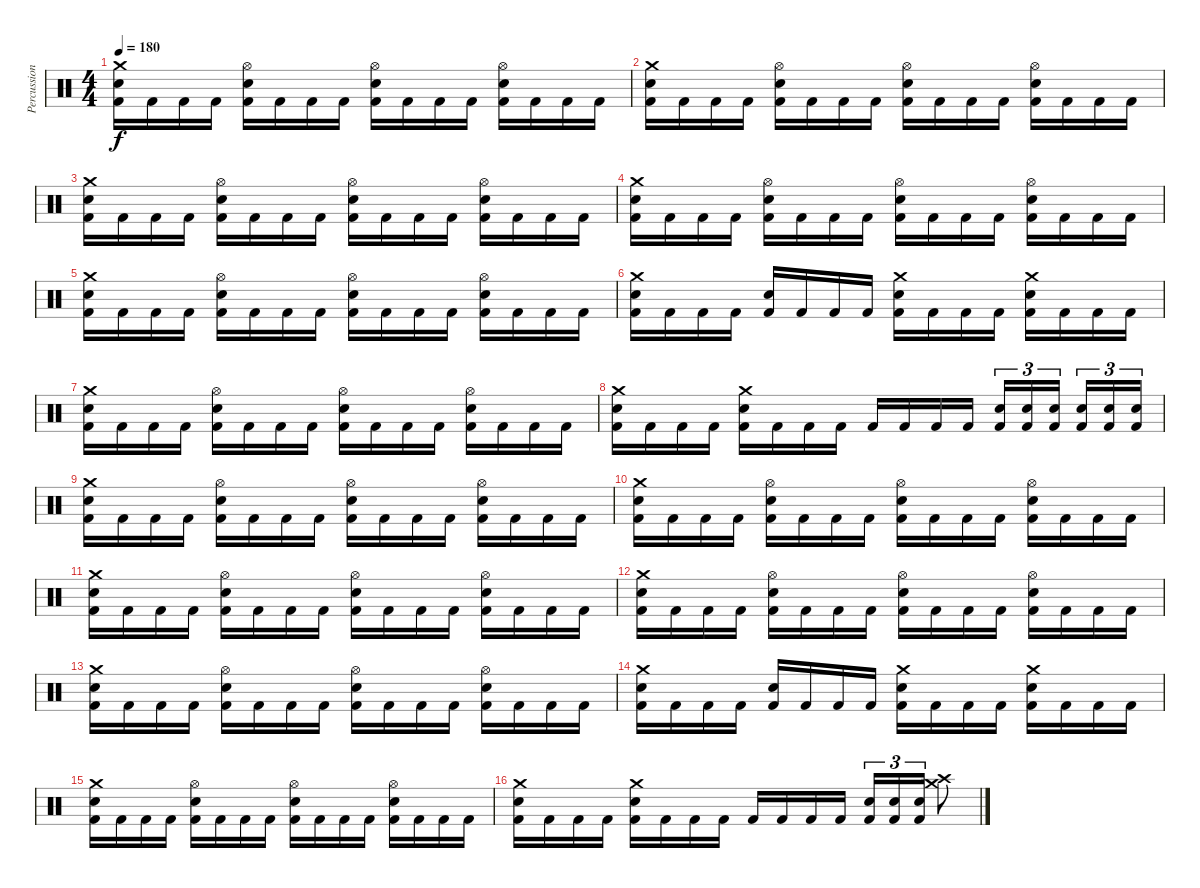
\track ("Percussions" "Percussion") {instrument percussion}
\staff {score}
\articulation defaults
\ts (4 4)
\tempo 180
\clef neutral
\ks c
("Kick (hit) 2" "Snare (hit) 2" "Crash medium (hit)").16{dy f} "Kick (hit) 2".16 "Kick (hit) 2".16 "Kick (hit) 2".16 ("Kick (hit) 2" "Snare (hit) 2" "Hi-Hat (open)").16 "Kick (hit) 2".16 "Kick (hit) 2".16 "Kick (hit) 2".16 ("Kick (hit) 2" "Snare (hit) 2" "Hi-Hat (open)").16 "Kick (hit) 2".16 "Kick (hit) 2".16 "Kick (hit) 2".16 ("Kick (hit) 2" "Snare (hit) 2" "Hi-Hat (open)").16 "Kick (hit) 2".16 "Kick (hit) 2".16 "Kick (hit) 2".16 |
("Kick (hit) 2" "Snare (hit) 2" "Crash medium (hit)").16 "Kick (hit) 2".16 "Kick (hit) 2".16 "Kick (hit) 2".16 ("Kick (hit) 2" "Snare (hit) 2" "Hi-Hat (open)").16 "Kick (hit) 2".16 "Kick (hit) 2".16 "Kick (hit) 2".16 ("Kick (hit) 2" "Snare (hit) 2" "Hi-Hat (open)").16 "Kick (hit) 2".16 "Kick (hit) 2".16 "Kick (hit) 2".16 ("Kick (hit) 2" "Snare (hit) 2" "Hi-Hat (open)").16 "Kick (hit) 2".16 "Kick (hit) 2".16 "Kick (hit) 2".16 |
("Kick (hit) 2" "Snare (hit) 2" "Crash medium (hit)").16 "Kick (hit) 2".16 "Kick (hit) 2".16 "Kick (hit) 2".16 ("Kick (hit) 2" "Snare (hit) 2" "Hi-Hat (open)").16 "Kick (hit) 2".16 "Kick (hit) 2".16 "Kick (hit) 2".16 ("Kick (hit) 2" "Snare (hit) 2" "Hi-Hat (open)").16 "Kick (hit) 2".16 "Kick (hit) 2".16 "Kick (hit) 2".16 ("Kick (hit) 2" "Snare (hit) 2" "Hi-Hat (open)").16 "Kick (hit) 2".16 "Kick (hit) 2".16 "Kick (hit) 2".16 |
("Kick (hit) 2" "Snare (hit) 2" "Crash medium (hit)").16 "Kick (hit) 2".16 "Kick (hit) 2".16 "Kick (hit) 2".16 ("Kick (hit) 2" "Snare (hit) 2" "Hi-Hat (open)").16 "Kick (hit) 2".16 "Kick (hit) 2".16 "Kick (hit) 2".16 ("Kick (hit) 2" "Snare (hit) 2" "Hi-Hat (open)").16 "Kick (hit) 2".16 "Kick (hit) 2".16 "Kick (hit) 2".16 ("Kick (hit) 2" "Snare (hit) 2" "Hi-Hat (open)").16 "Kick (hit) 2".16 "Kick (hit) 2".16 "Kick (hit) 2".16 |
("Kick (hit) 2" "Snare (hit) 2" "Crash medium (hit)").16 "Kick (hit) 2".16 "Kick (hit) 2".16 "Kick (hit) 2".16 ("Kick (hit) 2" "Snare (hit) 2" "Hi-Hat (open)").16 "Kick (hit) 2".16 "Kick (hit) 2".16 "Kick (hit) 2".16 ("Kick (hit) 2" "Snare (hit) 2" "Hi-Hat (open)").16 "Kick (hit) 2".16 "Kick (hit) 2".16 "Kick (hit) 2".16 ("Kick (hit) 2" "Snare (hit) 2" "Hi-Hat (open)").16 "Kick (hit) 2".16 "Kick (hit) 2".16 "Kick (hit) 2".16 |
("Kick (hit) 2" "Snare (hit) 2" "Crash medium (hit)").16 "Kick (hit) 2".16 "Kick (hit) 2".16 "Kick (hit) 2".16 ("Kick (hit) 2" "Snare (hit) 2").16 "Kick (hit) 2".16 "Kick (hit) 2".16 "Kick (hit) 2".16 ("Kick (hit) 2" "Snare (hit) 2" "Crash medium (hit)").16 "Kick (hit) 2".16 "Kick (hit) 2".16 "Kick (hit) 2".16 ("Kick (hit) 2" "Snare (hit) 2" "Crash medium (hit)").16 "Kick (hit) 2".16 "Kick (hit) 2".16 "Kick (hit) 2".16 |
("Kick (hit) 2" "Snare (hit) 2" "Crash medium (hit)").16 "Kick (hit) 2".16 "Kick (hit) 2".16 "Kick (hit) 2".16 ("Kick (hit) 2" "Snare (hit) 2" "Hi-Hat (open)").16 "Kick (hit) 2".16 "Kick (hit) 2".16 "Kick (hit) 2".16 ("Kick (hit) 2" "Snare (hit) 2" "Hi-Hat (open)").16 "Kick (hit) 2".16 "Kick (hit) 2".16 "Kick (hit) 2".16 ("Kick (hit) 2" "Snare (hit) 2" "Hi-Hat (open)").16 "Kick (hit) 2".16 "Kick (hit) 2".16 "Kick (hit) 2".16 |
("Kick (hit) 2" "Crash medium (hit)" "Snare (hit) 2").16 "Kick (hit) 2".16 "Kick (hit) 2".16 "Kick (hit) 2".16 ("Kick (hit) 2" "Crash medium (hit)" "Snare (hit) 2").16 "Kick (hit) 2".16 "Kick (hit) 2".16 "Kick (hit) 2".16 "Kick (hit) 2".16 "Kick (hit) 2".16 "Kick (hit) 2".16 "Kick (hit) 2".16 ("Kick (hit) 2" "Snare (hit) 2").16{tu (3 2)} ("Kick (hit) 2" "Snare (hit) 2").16{tu (3 2)} ("Kick (hit) 2" "Snare (hit) 2").16{tu (3 2)} ("Kick (hit) 2" "Snare (hit) 2").16{tu (3 2)} ("Kick (hit) 2" "Snare (hit) 2").16{tu (3 2)} ("Kick (hit) 2" "Snare (hit) 2").16{tu (3 2)} |
("Kick (hit) 2" "Snare (hit) 2" "Crash medium (hit)").16 "Kick (hit) 2".16 "Kick (hit) 2".16 "Kick (hit) 2".16 ("Kick (hit) 2" "Snare (hit) 2" "Hi-Hat (open)").16 "Kick (hit) 2".16 "Kick (hit) 2".16 "Kick (hit) 2".16 ("Kick (hit) 2" "Snare (hit) 2" "Hi-Hat (open)").16 "Kick (hit) 2".16 "Kick (hit) 2".16 "Kick (hit) 2".16 ("Kick (hit) 2" "Snare (hit) 2" "Hi-Hat (open)").16 "Kick (hit) 2".16 "Kick (hit) 2".16 "Kick (hit) 2".16 |
("Kick (hit) 2" "Snare (hit) 2" "Crash medium (hit)").16 "Kick (hit) 2".16 "Kick (hit) 2".16 "Kick (hit) 2".16 ("Kick (hit) 2" "Snare (hit) 2" "Hi-Hat (open)").16 "Kick (hit) 2".16 "Kick (hit) 2".16 "Kick (hit) 2".16 ("Kick (hit) 2" "Snare (hit) 2" "Hi-Hat (open)").16 "Kick (hit) 2".16 "Kick (hit) 2".16 "Kick (hit) 2".16 ("Kick (hit) 2" "Snare (hit) 2" "Hi-Hat (open)").16 "Kick (hit) 2".16 "Kick (hit) 2".16 "Kick (hit) 2".16 |
("Kick (hit) 2" "Snare (hit) 2" "Crash medium (hit)").16 "Kick (hit) 2".16 "Kick (hit) 2".16 "Kick (hit) 2".16 ("Kick (hit) 2" "Snare (hit) 2" "Hi-Hat (open)").16 "Kick (hit) 2".16 "Kick (hit) 2".16 "Kick (hit) 2".16 ("Kick (hit) 2" "Snare (hit) 2" "Hi-Hat (open)").16 "Kick (hit) 2".16 "Kick (hit) 2".16 "Kick (hit) 2".16 ("Kick (hit) 2" "Snare (hit) 2" "Hi-Hat (open)").16 "Kick (hit) 2".16 "Kick (hit) 2".16 "Kick (hit) 2".16 |
("Kick (hit) 2" "Snare (hit) 2" "Crash medium (hit)").16 "Kick (hit) 2".16 "Kick (hit) 2".16 "Kick (hit) 2".16 ("Kick (hit) 2" "Snare (hit) 2" "Hi-Hat (open)").16 "Kick (hit) 2".16 "Kick (hit) 2".16 "Kick (hit) 2".16 ("Kick (hit) 2" "Snare (hit) 2" "Hi-Hat (open)").16 "Kick (hit) 2".16 "Kick (hit) 2".16 "Kick (hit) 2".16 ("Kick (hit) 2" "Snare (hit) 2" "Hi-Hat (open)").16 "Kick (hit) 2".16 "Kick (hit) 2".16 "Kick (hit) 2".16 |
("Kick (hit) 2" "Snare (hit) 2" "Crash medium (hit)").16 "Kick (hit) 2".16 "Kick (hit) 2".16 "Kick (hit) 2".16 ("Kick (hit) 2" "Snare (hit) 2" "Hi-Hat (open)").16 "Kick (hit) 2".16 "Kick (hit) 2".16 "Kick (hit) 2".16 ("Kick (hit) 2" "Snare (hit) 2" "Hi-Hat (open)").16 "Kick (hit) 2".16 "Kick (hit) 2".16 "Kick (hit) 2".16 ("Kick (hit) 2" "Snare (hit) 2" "Hi-Hat (open)").16 "Kick (hit) 2".16 "Kick (hit) 2".16 "Kick (hit) 2".16 |
("Kick (hit) 2" "Snare (hit) 2" "Crash medium (hit)").16 "Kick (hit) 2".16 "Kick (hit) 2".16 "Kick (hit) 2".16 ("Kick (hit) 2" "Snare (hit) 2").16 "Kick (hit) 2".16 "Kick (hit) 2".16 "Kick (hit) 2".16 ("Kick (hit) 2" "Snare (hit) 2" "Crash medium (hit)").16 "Kick (hit) 2".16 "Kick (hit) 2".16 "Kick (hit) 2".16 ("Kick (hit) 2" "Snare (hit) 2" "Crash medium (hit)").16 "Kick (hit) 2".16 "Kick (hit) 2".16 "Kick (hit) 2".16 |
("Kick (hit) 2" "Snare (hit) 2" "Crash medium (hit)").16 "Kick (hit) 2".16 "Kick (hit) 2".16 "Kick (hit) 2".16 ("Kick (hit) 2" "Snare (hit) 2" "Hi-Hat (open)").16 "Kick (hit) 2".16 "Kick (hit) 2".16 "Kick (hit) 2".16 ("Kick (hit) 2" "Snare (hit) 2" "Hi-Hat (open)").16 "Kick (hit) 2".16 "Kick (hit) 2".16 "Kick (hit) 2".16 ("Kick (hit) 2" "Snare (hit) 2" "Hi-Hat (open)").16 "Kick (hit) 2".16 "Kick (hit) 2".16 "Kick (hit) 2".16 |
("Kick (hit) 2" "Crash medium (hit)" "Snare (hit) 2").16 "Kick (hit) 2".16 "Kick (hit) 2".16 "Kick (hit) 2".16 ("Kick (hit) 2" "Crash medium (hit)" "Snare (hit) 2").16 "Kick (hit) 2".16 "Kick (hit) 2".16 "Kick (hit) 2".16 "Kick (hit) 2".16 "Kick (hit) 2".16 "Kick (hit) 2".16 "Kick (hit) 2".16 ("Kick (hit) 2" "Snare (hit) 2").16{tu (3 2)} ("Kick (hit) 2" "Snare (hit) 2").16{tu (3 2)} ("Kick (hit) 2" "Snare (hit) 2").16{tu (3 2)} ("Crash high (hit)" "Crash medium (hit)").8
